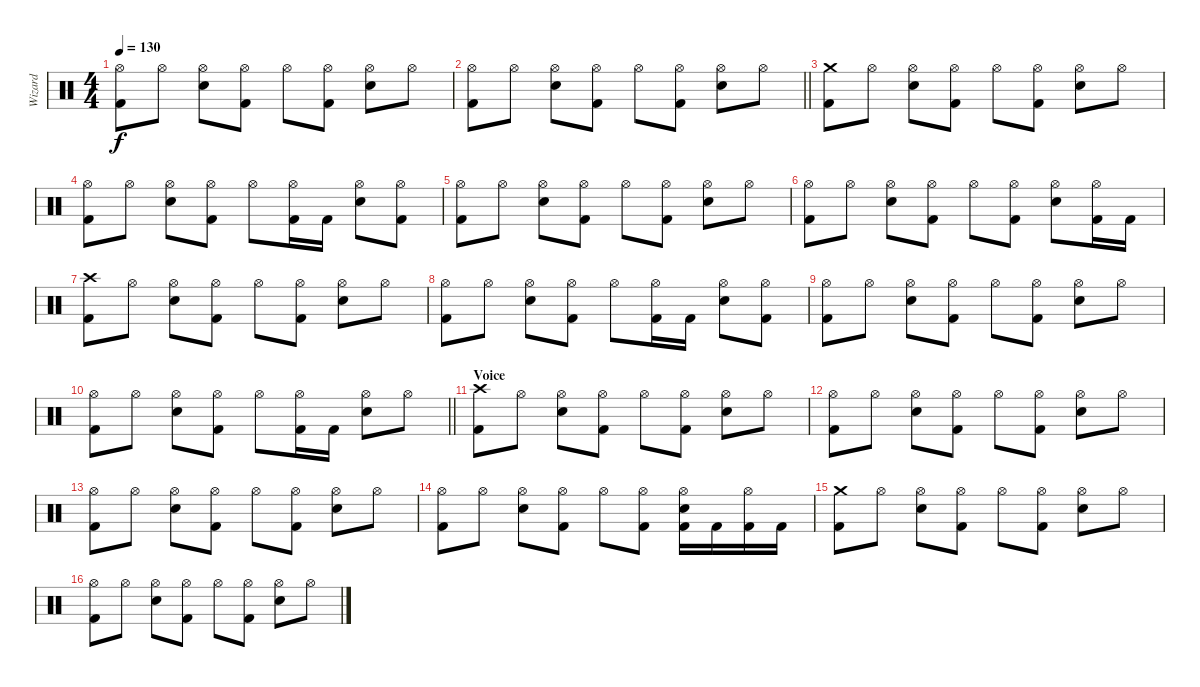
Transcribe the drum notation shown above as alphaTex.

\track ("Wizard" "Wizard") {instrument percussion}
\staff {score}
\articulation defaults
\ts (4 4)
\tempo 130
\clef neutral
\ks c
("Hi-Hat (open)" "Kick (hit) 2").8{dy f} "Hi-Hat (open)".8 ("Hi-Hat (open)" "Snare (hit) 2").8 ("Hi-Hat (open)" "Kick (hit) 2").8 "Hi-Hat (open)".8 ("Hi-Hat (open)" "Kick (hit) 2").8 ("Hi-Hat (open)" "Snare (hit) 2").8 "Hi-Hat (open)".8 |
\barLineRight lightlight
("Hi-Hat (open)" "Kick (hit) 2").8 "Hi-Hat (open)".8 ("Hi-Hat (open)" "Snare (hit) 2").8 ("Hi-Hat (open)" "Kick (hit) 2").8 "Hi-Hat (open)".8 ("Hi-Hat (open)" "Kick (hit) 2").8 ("Hi-Hat (open)" "Snare (hit) 2").8 "Hi-Hat (open)".8 |
\section ("" "")
("Crash medium (hit)" "Kick (hit) 2").8 "Hi-Hat (open)".8 ("Hi-Hat (open)" "Snare (hit) 2").8 ("Hi-Hat (open)" "Kick (hit) 2").8 "Hi-Hat (open)".8 ("Hi-Hat (open)" "Kick (hit) 2").8 ("Hi-Hat (open)" "Snare (hit) 2").8 "Hi-Hat (open)".8 |
("Hi-Hat (open)" "Kick (hit) 2").8 "Hi-Hat (open)".8 ("Hi-Hat (open)" "Snare (hit) 2").8 ("Hi-Hat (open)" "Kick (hit) 2").8 "Hi-Hat (open)".8 ("Hi-Hat (open)" "Kick (hit) 2").16 "Kick (hit) 2".16 ("Hi-Hat (open)" "Snare (hit) 2").8 ("Hi-Hat (open)" "Kick (hit) 2").8 |
("Hi-Hat (open)" "Kick (hit) 2").8 "Hi-Hat (open)".8 ("Hi-Hat (open)" "Snare (hit) 2").8 ("Hi-Hat (open)" "Kick (hit) 2").8 "Hi-Hat (open)".8 ("Hi-Hat (open)" "Kick (hit) 2").8 ("Hi-Hat (open)" "Snare (hit) 2").8 "Hi-Hat (open)".8 |
("Hi-Hat (open)" "Kick (hit) 2").8 "Hi-Hat (open)".8 ("Hi-Hat (open)" "Snare (hit) 2").8 ("Hi-Hat (open)" "Kick (hit) 2").8 "Hi-Hat (open)".8 ("Hi-Hat (open)" "Kick (hit) 2").8 ("Hi-Hat (open)" "Snare (hit) 2").8 ("Hi-Hat (open)" "Kick (hit) 2").16 "Kick (hit) 2".16 |
("Crash high (hit)" "Kick (hit) 2").8 "Hi-Hat (open)".8 ("Hi-Hat (open)" "Snare (hit) 2").8 ("Hi-Hat (open)" "Kick (hit) 2").8 "Hi-Hat (open)".8 ("Hi-Hat (open)" "Kick (hit) 2").8 ("Hi-Hat (open)" "Snare (hit) 2").8 "Hi-Hat (open)".8 |
("Hi-Hat (open)" "Kick (hit) 2").8 "Hi-Hat (open)".8 ("Hi-Hat (open)" "Snare (hit) 2").8 ("Hi-Hat (open)" "Kick (hit) 2").8 "Hi-Hat (open)".8 ("Hi-Hat (open)" "Kick (hit) 2").16 "Kick (hit) 2".16 ("Hi-Hat (open)" "Snare (hit) 2").8 ("Hi-Hat (open)" "Kick (hit) 2").8 |
("Hi-Hat (open)" "Kick (hit) 2").8 "Hi-Hat (open)".8 ("Hi-Hat (open)" "Snare (hit) 2").8 ("Hi-Hat (open)" "Kick (hit) 2").8 "Hi-Hat (open)".8 ("Hi-Hat (open)" "Kick (hit) 2").8 ("Hi-Hat (open)" "Snare (hit) 2").8 "Hi-Hat (open)".8 |
\barLineRight lightlight
("Hi-Hat (open)" "Kick (hit) 2").8 "Hi-Hat (open)".8 ("Hi-Hat (open)" "Snare (hit) 2").8 ("Hi-Hat (open)" "Kick (hit) 2").8 "Hi-Hat (open)".8 ("Hi-Hat (open)" "Kick (hit) 2").16 "Kick (hit) 2".16 ("Hi-Hat (open)" "Snare (hit) 2").8 "Hi-Hat (open)".8 |
\section ("" "Voice")
("Crash high (hit)" "Kick (hit) 2").8 "Hi-Hat (open)".8 ("Hi-Hat (open)" "Snare (hit) 2").8 ("Hi-Hat (open)" "Kick (hit) 2").8 "Hi-Hat (open)".8 ("Hi-Hat (open)" "Kick (hit) 2").8 ("Hi-Hat (open)" "Snare (hit) 2").8 "Hi-Hat (open)".8 |
("Hi-Hat (open)" "Kick (hit) 2").8 "Hi-Hat (open)".8 ("Hi-Hat (open)" "Snare (hit) 2").8 ("Hi-Hat (open)" "Kick (hit) 2").8 "Hi-Hat (open)".8 ("Hi-Hat (open)" "Kick (hit) 2").8 ("Hi-Hat (open)" "Snare (hit) 2").8 "Hi-Hat (open)".8 |
("Hi-Hat (open)" "Kick (hit) 2").8 "Hi-Hat (open)".8 ("Hi-Hat (open)" "Snare (hit) 2").8 ("Hi-Hat (open)" "Kick (hit) 2").8 "Hi-Hat (open)".8 ("Hi-Hat (open)" "Kick (hit) 2").8 ("Hi-Hat (open)" "Snare (hit) 2").8 "Hi-Hat (open)".8 |
("Hi-Hat (open)" "Kick (hit) 2").8 "Hi-Hat (open)".8 ("Hi-Hat (open)" "Snare (hit) 2").8 ("Hi-Hat (open)" "Kick (hit) 2").8 "Hi-Hat (open)".8 ("Hi-Hat (open)" "Kick (hit) 2").8 ("Hi-Hat (open)" "Snare (hit) 2" "Kick (hit) 2").16 "Kick (hit) 2".16 ("Hi-Hat (open)" "Kick (hit) 2").16 "Kick (hit) 2".16 |
("Crash medium (hit)" "Kick (hit) 2").8 "Hi-Hat (open)".8 ("Hi-Hat (open)" "Snare (hit) 2").8 ("Hi-Hat (open)" "Kick (hit) 2").8 "Hi-Hat (open)".8 ("Hi-Hat (open)" "Kick (hit) 2").8 ("Hi-Hat (open)" "Snare (hit) 2").8 "Hi-Hat (open)".8 |
("Hi-Hat (open)" "Kick (hit) 2").8 "Hi-Hat (open)".8 ("Hi-Hat (open)" "Snare (hit) 2").8 ("Hi-Hat (open)" "Kick (hit) 2").8 "Hi-Hat (open)".8 ("Hi-Hat (open)" "Kick (hit) 2").8 ("Hi-Hat (open)" "Snare (hit) 2").8 "Hi-Hat (open)".8
